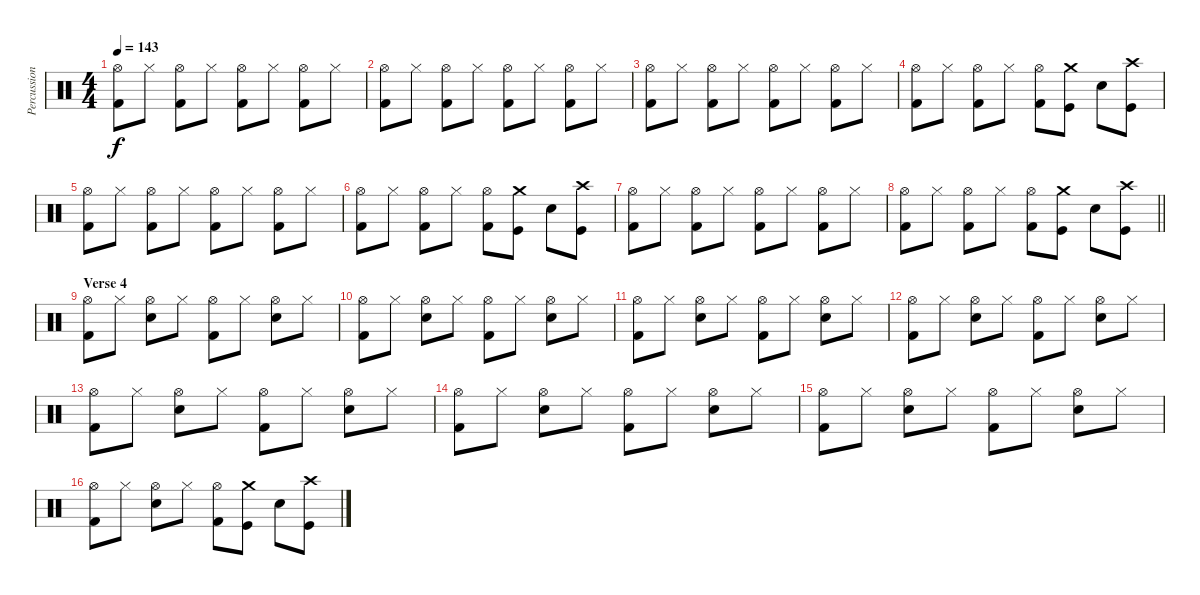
\track ("Percussion" "Percussion") {instrument percussion}
\staff {score}
\articulation defaults
\ts (4 4)
\tempo 143
\clef neutral
\ks c
("Hi-Hat (open)" "Kick (hit) 2").8{dy f} "Hi-Hat (closed)".8 ("Hi-Hat (open)" "Kick (hit) 2").8 "Hi-Hat (closed)".8 ("Hi-Hat (open)" "Kick (hit) 2").8 "Hi-Hat (closed)".8 ("Hi-Hat (open)" "Kick (hit) 2").8 "Hi-Hat (closed)".8 |
("Hi-Hat (open)" "Kick (hit) 2").8 "Hi-Hat (closed)".8 ("Hi-Hat (open)" "Kick (hit) 2").8 "Hi-Hat (closed)".8 ("Hi-Hat (open)" "Kick (hit) 2").8 "Hi-Hat (closed)".8 ("Hi-Hat (open)" "Kick (hit) 2").8 "Hi-Hat (closed)".8 |
("Hi-Hat (open)" "Kick (hit) 2").8 "Hi-Hat (closed)".8 ("Hi-Hat (open)" "Kick (hit) 2").8 "Hi-Hat (closed)".8 ("Hi-Hat (open)" "Kick (hit) 2").8 "Hi-Hat (closed)".8 ("Hi-Hat (open)" "Kick (hit) 2").8 "Hi-Hat (closed)".8 |
("Hi-Hat (open)" "Kick (hit) 2").8 "Hi-Hat (closed)".8 ("Hi-Hat (open)" "Kick (hit) 2").8 "Hi-Hat (closed)".8 ("Hi-Hat (open)" "Kick (hit) 2").8 ("Crash medium (hit)" "Kick (hit)").8 "Snare (hit) 2".8 ("Crash high (hit)" "Kick (hit)").8 |
("Hi-Hat (open)" "Kick (hit) 2").8 "Hi-Hat (closed)".8 ("Hi-Hat (open)" "Kick (hit) 2").8 "Hi-Hat (closed)".8 ("Hi-Hat (open)" "Kick (hit) 2").8 "Hi-Hat (closed)".8 ("Hi-Hat (open)" "Kick (hit) 2").8 "Hi-Hat (closed)".8 |
("Hi-Hat (open)" "Kick (hit) 2").8 "Hi-Hat (closed)".8 ("Hi-Hat (open)" "Kick (hit) 2").8 "Hi-Hat (closed)".8 ("Hi-Hat (open)" "Kick (hit) 2").8 ("Crash medium (hit)" "Kick (hit)").8 "Snare (hit) 2".8 ("Crash high (hit)" "Kick (hit)").8 |
("Hi-Hat (open)" "Kick (hit) 2").8 "Hi-Hat (closed)".8 ("Hi-Hat (open)" "Kick (hit) 2").8 "Hi-Hat (closed)".8 ("Hi-Hat (open)" "Kick (hit) 2").8 "Hi-Hat (closed)".8 ("Hi-Hat (open)" "Kick (hit) 2").8 "Hi-Hat (closed)".8 |
\barLineRight lightlight
("Hi-Hat (open)" "Kick (hit) 2").8 "Hi-Hat (closed)".8 ("Hi-Hat (open)" "Kick (hit) 2").8 "Hi-Hat (closed)".8 ("Hi-Hat (open)" "Kick (hit) 2").8 ("Crash medium (hit)" "Kick (hit)").8 "Snare (hit) 2".8 ("Crash high (hit)" "Kick (hit)").8 |
\section ("" "Verse 4")
("Hi-Hat (open)" "Kick (hit) 2").8 "Hi-Hat (closed)".8 ("Hi-Hat (open)" "Snare (hit) 2").8 "Hi-Hat (closed)".8 ("Hi-Hat (open)" "Kick (hit) 2").8 "Hi-Hat (closed)".8 ("Hi-Hat (open)" "Snare (hit) 2").8 "Hi-Hat (closed)".8 |
("Hi-Hat (open)" "Kick (hit) 2").8 "Hi-Hat (closed)".8 ("Hi-Hat (open)" "Snare (hit) 2").8 "Hi-Hat (closed)".8 ("Hi-Hat (open)" "Kick (hit) 2").8 "Hi-Hat (closed)".8 ("Hi-Hat (open)" "Snare (hit) 2").8 "Hi-Hat (closed)".8 |
("Hi-Hat (open)" "Kick (hit) 2").8 "Hi-Hat (closed)".8 ("Hi-Hat (open)" "Snare (hit) 2").8 "Hi-Hat (closed)".8 ("Hi-Hat (open)" "Kick (hit) 2").8 "Hi-Hat (closed)".8 ("Hi-Hat (open)" "Snare (hit) 2").8 "Hi-Hat (closed)".8 |
("Hi-Hat (open)" "Kick (hit) 2").8 "Hi-Hat (closed)".8 ("Hi-Hat (open)" "Snare (hit) 2").8 "Hi-Hat (closed)".8 ("Hi-Hat (open)" "Kick (hit) 2").8 "Hi-Hat (closed)".8 ("Hi-Hat (open)" "Snare (hit) 2").8 "Hi-Hat (closed)".8 |
("Hi-Hat (open)" "Kick (hit) 2").8 "Hi-Hat (closed)".8 ("Hi-Hat (open)" "Snare (hit) 2").8 "Hi-Hat (closed)".8 ("Hi-Hat (open)" "Kick (hit) 2").8 "Hi-Hat (closed)".8 ("Hi-Hat (open)" "Snare (hit) 2").8 "Hi-Hat (closed)".8 |
("Hi-Hat (open)" "Kick (hit) 2").8 "Hi-Hat (closed)".8 ("Hi-Hat (open)" "Snare (hit) 2").8 "Hi-Hat (closed)".8 ("Hi-Hat (open)" "Kick (hit) 2").8 "Hi-Hat (closed)".8 ("Hi-Hat (open)" "Snare (hit) 2").8 "Hi-Hat (closed)".8 |
("Hi-Hat (open)" "Kick (hit) 2").8 "Hi-Hat (closed)".8 ("Hi-Hat (open)" "Snare (hit) 2").8 "Hi-Hat (closed)".8 ("Hi-Hat (open)" "Kick (hit) 2").8 "Hi-Hat (closed)".8 ("Hi-Hat (open)" "Snare (hit) 2").8 "Hi-Hat (closed)".8 |
("Hi-Hat (open)" "Kick (hit) 2").8 "Hi-Hat (closed)".8 ("Hi-Hat (open)" "Snare (hit) 2").8 "Hi-Hat (closed)".8 ("Hi-Hat (open)" "Kick (hit) 2").8 ("Crash medium (hit)" "Kick (hit)").8 "Snare (hit) 2".8 ("Crash high (hit)" "Kick (hit)").8
